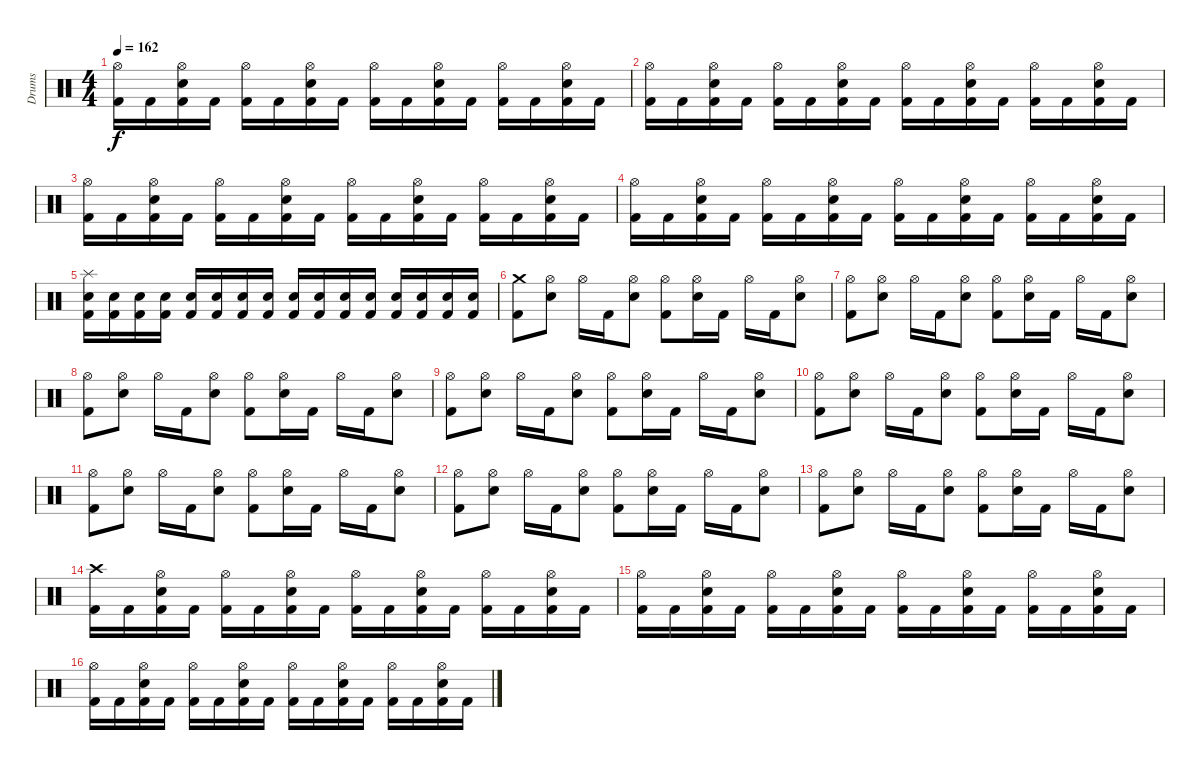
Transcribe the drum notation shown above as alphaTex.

\track ("Drums" "Drums") {instrument percussion}
\staff {score}
\articulation defaults
\ts (4 4)
\tempo 162
\clef neutral
\ks c
("Kick (hit) 2" "Hi-Hat (open)").16{dy f} "Kick (hit) 2".16 ("Kick (hit) 2" "Electric Snare (hit)" "Hi-Hat (open)").16 "Kick (hit) 2".16 ("Kick (hit) 2" "Hi-Hat (open)").16 "Kick (hit) 2".16 ("Kick (hit) 2" "Electric Snare (hit)" "Hi-Hat (open)").16 "Kick (hit) 2".16 ("Kick (hit) 2" "Hi-Hat (open)").16 "Kick (hit) 2".16 ("Kick (hit) 2" "Electric Snare (hit)" "Hi-Hat (open)").16 "Kick (hit) 2".16 ("Kick (hit) 2" "Hi-Hat (open)").16 "Kick (hit) 2".16 ("Kick (hit) 2" "Electric Snare (hit)" "Hi-Hat (open)").16 "Kick (hit) 2".16 |
("Kick (hit) 2" "Hi-Hat (open)").16 "Kick (hit) 2".16 ("Kick (hit) 2" "Electric Snare (hit)" "Hi-Hat (open)").16 "Kick (hit) 2".16 ("Kick (hit) 2" "Hi-Hat (open)").16 "Kick (hit) 2".16 ("Kick (hit) 2" "Electric Snare (hit)" "Hi-Hat (open)").16 "Kick (hit) 2".16 ("Kick (hit) 2" "Hi-Hat (open)").16 "Kick (hit) 2".16 ("Kick (hit) 2" "Electric Snare (hit)" "Hi-Hat (open)").16 "Kick (hit) 2".16 ("Kick (hit) 2" "Hi-Hat (open)").16 "Kick (hit) 2".16 ("Kick (hit) 2" "Electric Snare (hit)" "Hi-Hat (open)").16 "Kick (hit) 2".16 |
("Kick (hit) 2" "Hi-Hat (open)").16 "Kick (hit) 2".16 ("Kick (hit) 2" "Electric Snare (hit)" "Hi-Hat (open)").16 "Kick (hit) 2".16 ("Kick (hit) 2" "Hi-Hat (open)").16 "Kick (hit) 2".16 ("Kick (hit) 2" "Electric Snare (hit)" "Hi-Hat (open)").16 "Kick (hit) 2".16 ("Kick (hit) 2" "Hi-Hat (open)").16 "Kick (hit) 2".16 ("Kick (hit) 2" "Electric Snare (hit)" "Hi-Hat (open)").16 "Kick (hit) 2".16 ("Kick (hit) 2" "Hi-Hat (open)").16 "Kick (hit) 2".16 ("Kick (hit) 2" "Electric Snare (hit)" "Hi-Hat (open)").16 "Kick (hit) 2".16 |
("Kick (hit) 2" "Hi-Hat (open)").16 "Kick (hit) 2".16 ("Kick (hit) 2" "Electric Snare (hit)" "Hi-Hat (open)").16 "Kick (hit) 2".16 ("Kick (hit) 2" "Hi-Hat (open)").16 "Kick (hit) 2".16 ("Kick (hit) 2" "Electric Snare (hit)" "Hi-Hat (open)").16 "Kick (hit) 2".16 ("Kick (hit) 2" "Hi-Hat (open)").16 "Kick (hit) 2".16 ("Kick (hit) 2" "Electric Snare (hit)" "Hi-Hat (open)").16 "Kick (hit) 2".16 ("Kick (hit) 2" "Hi-Hat (open)").16 "Kick (hit) 2".16 ("Kick (hit) 2" "Electric Snare (hit)" "Hi-Hat (open)").16 "Kick (hit) 2".16 |
("Kick (hit) 2" "Electric Snare (hit)" "Splash (hit)").16 ("Kick (hit) 2" "Electric Snare (hit)").16 ("Kick (hit) 2" "Electric Snare (hit)").16 ("Kick (hit) 2" "Electric Snare (hit)").16 ("Kick (hit) 2" "Electric Snare (hit)").16 ("Kick (hit) 2" "Electric Snare (hit)").16 ("Kick (hit) 2" "Electric Snare (hit)").16 ("Kick (hit) 2" "Electric Snare (hit)").16 ("Kick (hit) 2" "Electric Snare (hit)").16 ("Kick (hit) 2" "Electric Snare (hit)").16 ("Kick (hit) 2" "Electric Snare (hit)").16 ("Kick (hit) 2" "Electric Snare (hit)").16 ("Kick (hit) 2" "Electric Snare (hit)").16 ("Kick (hit) 2" "Electric Snare (hit)").16 ("Kick (hit) 2" "Electric Snare (hit)").16 ("Kick (hit) 2" "Electric Snare (hit)").16 |
\section ("" "")
("Kick (hit) 2" "Crash medium (hit)").8 ("Electric Snare (hit)" "Hi-Hat (open)").8 "Hi-Hat (open)".16 "Kick (hit) 2".16 ("Electric Snare (hit)" "Hi-Hat (open)").8 ("Kick (hit) 2" "Hi-Hat (open)").8 ("Electric Snare (hit)" "Hi-Hat (open)").16 "Kick (hit) 2".16 "Hi-Hat (open)".16 "Kick (hit) 2".16 ("Electric Snare (hit)" "Hi-Hat (open)").8 |
("Kick (hit) 2" "Hi-Hat (open)").8 ("Electric Snare (hit)" "Hi-Hat (open)").8 "Hi-Hat (open)".16 "Kick (hit) 2".16 ("Electric Snare (hit)" "Hi-Hat (open)").8 ("Kick (hit) 2" "Hi-Hat (open)").8 ("Electric Snare (hit)" "Hi-Hat (open)").16 "Kick (hit) 2".16 "Hi-Hat (open)".16 "Kick (hit) 2".16 ("Electric Snare (hit)" "Hi-Hat (open)").8 |
("Kick (hit) 2" "Hi-Hat (open)").8 ("Electric Snare (hit)" "Hi-Hat (open)").8 "Hi-Hat (open)".16 "Kick (hit) 2".16 ("Electric Snare (hit)" "Hi-Hat (open)").8 ("Kick (hit) 2" "Hi-Hat (open)").8 ("Electric Snare (hit)" "Hi-Hat (open)").16 "Kick (hit) 2".16 "Hi-Hat (open)".16 "Kick (hit) 2".16 ("Electric Snare (hit)" "Hi-Hat (open)").8 |
("Kick (hit) 2" "Hi-Hat (open)").8 ("Electric Snare (hit)" "Hi-Hat (open)").8 "Hi-Hat (open)".16 "Kick (hit) 2".16 ("Electric Snare (hit)" "Hi-Hat (open)").8 ("Kick (hit) 2" "Hi-Hat (open)").8 ("Electric Snare (hit)" "Hi-Hat (open)").16 "Kick (hit) 2".16 "Hi-Hat (open)".16 "Kick (hit) 2".16 ("Electric Snare (hit)" "Hi-Hat (open)").8 |
("Kick (hit) 2" "Hi-Hat (open)").8 ("Electric Snare (hit)" "Hi-Hat (open)").8 "Hi-Hat (open)".16 "Kick (hit) 2".16 ("Electric Snare (hit)" "Hi-Hat (open)").8 ("Kick (hit) 2" "Hi-Hat (open)").8 ("Electric Snare (hit)" "Hi-Hat (open)").16 "Kick (hit) 2".16 "Hi-Hat (open)".16 "Kick (hit) 2".16 ("Electric Snare (hit)" "Hi-Hat (open)").8 |
("Kick (hit) 2" "Hi-Hat (open)").8 ("Electric Snare (hit)" "Hi-Hat (open)").8 "Hi-Hat (open)".16 "Kick (hit) 2".16 ("Electric Snare (hit)" "Hi-Hat (open)").8 ("Kick (hit) 2" "Hi-Hat (open)").8 ("Electric Snare (hit)" "Hi-Hat (open)").16 "Kick (hit) 2".16 "Hi-Hat (open)".16 "Kick (hit) 2".16 ("Electric Snare (hit)" "Hi-Hat (open)").8 |
("Kick (hit) 2" "Hi-Hat (open)").8 ("Electric Snare (hit)" "Hi-Hat (open)").8 "Hi-Hat (open)".16 "Kick (hit) 2".16 ("Electric Snare (hit)" "Hi-Hat (open)").8 ("Kick (hit) 2" "Hi-Hat (open)").8 ("Electric Snare (hit)" "Hi-Hat (open)").16 "Kick (hit) 2".16 "Hi-Hat (open)".16 "Kick (hit) 2".16 ("Electric Snare (hit)" "Hi-Hat (open)").8 |
("Kick (hit) 2" "Hi-Hat (open)").8 ("Electric Snare (hit)" "Hi-Hat (open)").8 "Hi-Hat (open)".16 "Kick (hit) 2".16 ("Electric Snare (hit)" "Hi-Hat (open)").8 ("Kick (hit) 2" "Hi-Hat (open)").8 ("Electric Snare (hit)" "Hi-Hat (open)").16 "Kick (hit) 2".16 "Hi-Hat (open)".16 "Kick (hit) 2".16 ("Electric Snare (hit)" "Hi-Hat (open)").8 |
\section ("" "")
("Kick (hit) 2" "Crash high (hit)").16 "Kick (hit) 2".16 ("Kick (hit) 2" "Electric Snare (hit)" "Hi-Hat (open)").16 "Kick (hit) 2".16 ("Kick (hit) 2" "Hi-Hat (open)").16 "Kick (hit) 2".16 ("Kick (hit) 2" "Electric Snare (hit)" "Hi-Hat (open)").16 "Kick (hit) 2".16 ("Kick (hit) 2" "Hi-Hat (open)").16 "Kick (hit) 2".16 ("Kick (hit) 2" "Electric Snare (hit)" "Hi-Hat (open)").16 "Kick (hit) 2".16 ("Kick (hit) 2" "Hi-Hat (open)").16 "Kick (hit) 2".16 ("Kick (hit) 2" "Electric Snare (hit)" "Hi-Hat (open)").16 "Kick (hit) 2".16 |
("Kick (hit) 2" "Hi-Hat (open)").16 "Kick (hit) 2".16 ("Kick (hit) 2" "Electric Snare (hit)" "Hi-Hat (open)").16 "Kick (hit) 2".16 ("Kick (hit) 2" "Hi-Hat (open)").16 "Kick (hit) 2".16 ("Kick (hit) 2" "Electric Snare (hit)" "Hi-Hat (open)").16 "Kick (hit) 2".16 ("Kick (hit) 2" "Hi-Hat (open)").16 "Kick (hit) 2".16 ("Kick (hit) 2" "Electric Snare (hit)" "Hi-Hat (open)").16 "Kick (hit) 2".16 ("Kick (hit) 2" "Hi-Hat (open)").16 "Kick (hit) 2".16 ("Kick (hit) 2" "Electric Snare (hit)" "Hi-Hat (open)").16 "Kick (hit) 2".16 |
("Kick (hit) 2" "Hi-Hat (open)").16 "Kick (hit) 2".16 ("Kick (hit) 2" "Electric Snare (hit)" "Hi-Hat (open)").16 "Kick (hit) 2".16 ("Kick (hit) 2" "Hi-Hat (open)").16 "Kick (hit) 2".16 ("Kick (hit) 2" "Electric Snare (hit)" "Hi-Hat (open)").16 "Kick (hit) 2".16 ("Kick (hit) 2" "Hi-Hat (open)").16 "Kick (hit) 2".16 ("Kick (hit) 2" "Electric Snare (hit)" "Hi-Hat (open)").16 "Kick (hit) 2".16 ("Kick (hit) 2" "Hi-Hat (open)").16 "Kick (hit) 2".16 ("Kick (hit) 2" "Electric Snare (hit)" "Hi-Hat (open)").16 "Kick (hit) 2".16
